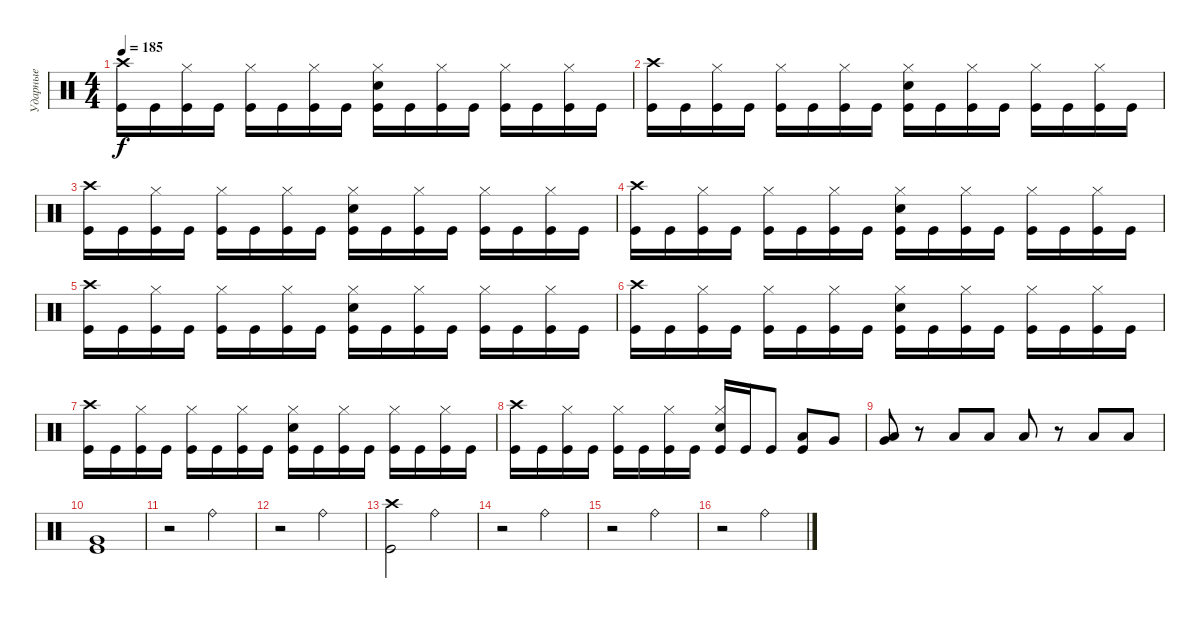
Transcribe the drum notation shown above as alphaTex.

\track ("Ударные" "Ударные") {instrument percussion}
\staff {score}
\articulation defaults
\ts (4 4)
\tempo 185
\clef neutral
\ks c
("Crash high (hit)" "Kick (hit)").16{dy f} "Kick (hit)".16 ("Hi-Hat (closed)" "Kick (hit)").16 "Kick (hit)".16 ("Hi-Hat (closed)" "Kick (hit)").16 "Kick (hit)".16 ("Hi-Hat (closed)" "Kick (hit)").16 "Kick (hit)".16 ("Hi-Hat (closed)" "Electric Snare (hit)" "Kick (hit)").16 "Kick (hit)".16 ("Hi-Hat (closed)" "Kick (hit)").16 "Kick (hit)".16 ("Hi-Hat (closed)" "Kick (hit)").16 "Kick (hit)".16 ("Hi-Hat (closed)" "Kick (hit)").16 "Kick (hit)".16 |
("Crash high (hit)" "Kick (hit)").16 "Kick (hit)".16 ("Hi-Hat (closed)" "Kick (hit)").16 "Kick (hit)".16 ("Hi-Hat (closed)" "Kick (hit)").16 "Kick (hit)".16 ("Hi-Hat (closed)" "Kick (hit)").16 "Kick (hit)".16 ("Hi-Hat (closed)" "Electric Snare (hit)" "Kick (hit)").16 "Kick (hit)".16 ("Hi-Hat (closed)" "Kick (hit)").16 "Kick (hit)".16 ("Hi-Hat (closed)" "Kick (hit)").16 "Kick (hit)".16 ("Hi-Hat (closed)" "Kick (hit)").16 "Kick (hit)".16 |
("Crash high (hit)" "Kick (hit)").16 "Kick (hit)".16 ("Hi-Hat (closed)" "Kick (hit)").16 "Kick (hit)".16 ("Hi-Hat (closed)" "Kick (hit)").16 "Kick (hit)".16 ("Hi-Hat (closed)" "Kick (hit)").16 "Kick (hit)".16 ("Hi-Hat (closed)" "Electric Snare (hit)" "Kick (hit)").16 "Kick (hit)".16 ("Hi-Hat (closed)" "Kick (hit)").16 "Kick (hit)".16 ("Hi-Hat (closed)" "Kick (hit)").16 "Kick (hit)".16 ("Hi-Hat (closed)" "Kick (hit)").16 "Kick (hit)".16 |
("Crash high (hit)" "Kick (hit)").16 "Kick (hit)".16 ("Hi-Hat (closed)" "Kick (hit)").16 "Kick (hit)".16 ("Hi-Hat (closed)" "Kick (hit)").16 "Kick (hit)".16 ("Hi-Hat (closed)" "Kick (hit)").16 "Kick (hit)".16 ("Hi-Hat (closed)" "Electric Snare (hit)" "Kick (hit)").16 "Kick (hit)".16 ("Hi-Hat (closed)" "Kick (hit)").16 "Kick (hit)".16 ("Hi-Hat (closed)" "Kick (hit)").16 "Kick (hit)".16 ("Hi-Hat (closed)" "Kick (hit)").16 "Kick (hit)".16 |
("Crash high (hit)" "Kick (hit)").16 "Kick (hit)".16 ("Hi-Hat (closed)" "Kick (hit)").16 "Kick (hit)".16 ("Hi-Hat (closed)" "Kick (hit)").16 "Kick (hit)".16 ("Hi-Hat (closed)" "Kick (hit)").16 "Kick (hit)".16 ("Hi-Hat (closed)" "Electric Snare (hit)" "Kick (hit)").16 "Kick (hit)".16 ("Hi-Hat (closed)" "Kick (hit)").16 "Kick (hit)".16 ("Hi-Hat (closed)" "Kick (hit)").16 "Kick (hit)".16 ("Hi-Hat (closed)" "Kick (hit)").16 "Kick (hit)".16 |
("Crash high (hit)" "Kick (hit)").16 "Kick (hit)".16 ("Hi-Hat (closed)" "Kick (hit)").16 "Kick (hit)".16 ("Hi-Hat (closed)" "Kick (hit)").16 "Kick (hit)".16 ("Hi-Hat (closed)" "Kick (hit)").16 "Kick (hit)".16 ("Hi-Hat (closed)" "Electric Snare (hit)" "Kick (hit)").16 "Kick (hit)".16 ("Hi-Hat (closed)" "Kick (hit)").16 "Kick (hit)".16 ("Hi-Hat (closed)" "Kick (hit)").16 "Kick (hit)".16 ("Hi-Hat (closed)" "Kick (hit)").16 "Kick (hit)".16 |
("Crash high (hit)" "Kick (hit)").16 "Kick (hit)".16 ("Hi-Hat (closed)" "Kick (hit)").16 "Kick (hit)".16 ("Hi-Hat (closed)" "Kick (hit)").16 "Kick (hit)".16 ("Hi-Hat (closed)" "Kick (hit)").16 "Kick (hit)".16 ("Hi-Hat (closed)" "Electric Snare (hit)" "Kick (hit)").16 "Kick (hit)".16 ("Hi-Hat (closed)" "Kick (hit)").16 "Kick (hit)".16 ("Hi-Hat (closed)" "Kick (hit)").16 "Kick (hit)".16 ("Hi-Hat (closed)" "Kick (hit)").16 "Kick (hit)".16 |
("Crash high (hit)" "Kick (hit)").16 "Kick (hit)".16 ("Hi-Hat (closed)" "Kick (hit)").16 "Kick (hit)".16 ("Hi-Hat (closed)" "Kick (hit)").16 "Kick (hit)".16 ("Hi-Hat (closed)" "Kick (hit)").16 "Kick (hit)".16 ("Hi-Hat (closed)" "Electric Snare (hit)" "Kick (hit)").16 "Kick (hit)".16 "Kick (hit)".8 ("Low Tom (hit)" "Kick (hit)").8 "Very Low Tom (hit)".8 |
("Very Low Tom (hit)" "Low Tom (hit)").8 r.8 "Low Tom (hit)".8 "Low Tom (hit)".8 "Low Tom (hit)".8 r.8 "Low Tom (hit)".8 "Low Tom (hit)".8 |
("Very Low Tom (hit)" "Kick (hit)").1 |
r.2 "Ride (bell)".2 |
r.2 "Ride (bell)".2 |
("Crash high (hit)" "Kick (hit)").2 "Ride (bell)".2 |
r.2 "Ride (bell)".2 |
r.2 "Ride (bell)".2 |
r.2 "Ride (bell)".2
